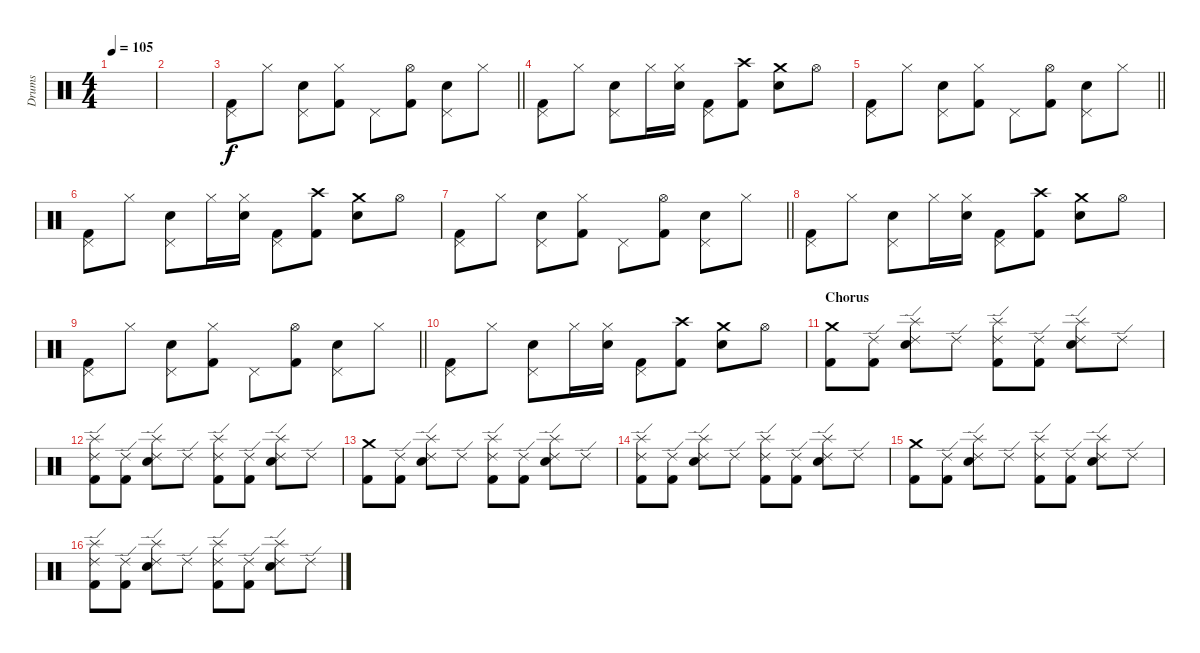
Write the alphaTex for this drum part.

\track ("Drums" "Drums") {instrument percussion}
\staff {score}
\articulation defaults
\ts (4 4)
\tempo 105
\clef neutral
\ks c
|
|
\barLineRight lightlight
("Pedal Hi-Hat (hit)" "Kick (hit) 2").8 "Hi-Hat (closed)".8 ("Pedal Hi-Hat (hit)" "Electric Snare (hit)").8 ("Hi-Hat (closed)" "Kick (hit) 2").8 "Pedal Hi-Hat (hit)".8 ("Hi-Hat (open)" "Kick (hit) 2").8 ("Pedal Hi-Hat (hit)" "Electric Snare (hit)").8 "Hi-Hat (closed)".8 |
("Pedal Hi-Hat (hit)" "Kick (hit) 2").8 "Hi-Hat (closed)".8 ("Pedal Hi-Hat (hit)" "Electric Snare (hit)").8 "Hi-Hat (closed)".16 ("Hi-Hat (closed)" "Electric Snare (hit)").16 ("Pedal Hi-Hat (hit)" "Kick (hit) 2").8 ("Crash high (hit)" "Kick (hit) 2").8 ("Crash medium (hit)" "Electric Snare (hit)").8 "Hi-Hat (open)".8 |
\barLineRight lightlight
("Pedal Hi-Hat (hit)" "Kick (hit) 2").8 "Hi-Hat (closed)".8 ("Pedal Hi-Hat (hit)" "Electric Snare (hit)").8 ("Hi-Hat (closed)" "Kick (hit) 2").8 "Pedal Hi-Hat (hit)".8 ("Hi-Hat (open)" "Kick (hit) 2").8 ("Pedal Hi-Hat (hit)" "Electric Snare (hit)").8 "Hi-Hat (closed)".8 |
("Pedal Hi-Hat (hit)" "Kick (hit) 2").8 "Hi-Hat (closed)".8 ("Pedal Hi-Hat (hit)" "Electric Snare (hit)").8 "Hi-Hat (closed)".16 ("Hi-Hat (closed)" "Electric Snare (hit)").16 ("Pedal Hi-Hat (hit)" "Kick (hit) 2").8 ("Crash high (hit)" "Kick (hit) 2").8 ("Crash medium (hit)" "Electric Snare (hit)").8 "Hi-Hat (open)".8 |
\barLineRight lightlight
("Pedal Hi-Hat (hit)" "Kick (hit) 2").8 "Hi-Hat (closed)".8 ("Pedal Hi-Hat (hit)" "Electric Snare (hit)").8 ("Hi-Hat (closed)" "Kick (hit) 2").8 "Pedal Hi-Hat (hit)".8 ("Hi-Hat (open)" "Kick (hit) 2").8 ("Pedal Hi-Hat (hit)" "Electric Snare (hit)").8 "Hi-Hat (closed)".8 |
("Pedal Hi-Hat (hit)" "Kick (hit) 2").8 "Hi-Hat (closed)".8 ("Pedal Hi-Hat (hit)" "Electric Snare (hit)").8 "Hi-Hat (closed)".16 ("Hi-Hat (closed)" "Electric Snare (hit)").16 ("Pedal Hi-Hat (hit)" "Kick (hit) 2").8 ("Crash high (hit)" "Kick (hit) 2").8 ("Crash medium (hit)" "Electric Snare (hit)").8 "Hi-Hat (open)".8 |
\barLineRight lightlight
("Pedal Hi-Hat (hit)" "Kick (hit) 2").8 "Hi-Hat (closed)".8 ("Pedal Hi-Hat (hit)" "Electric Snare (hit)").8 ("Hi-Hat (closed)" "Kick (hit) 2").8 "Pedal Hi-Hat (hit)".8 ("Hi-Hat (open)" "Kick (hit) 2").8 ("Pedal Hi-Hat (hit)" "Electric Snare (hit)").8 "Hi-Hat (closed)".8 |
("Pedal Hi-Hat (hit)" "Kick (hit) 2").8 "Hi-Hat (closed)".8 ("Pedal Hi-Hat (hit)" "Electric Snare (hit)").8 "Hi-Hat (closed)".16 ("Hi-Hat (closed)" "Electric Snare (hit)").16 ("Pedal Hi-Hat (hit)" "Kick (hit) 2").8 ("Crash high (hit)" "Kick (hit) 2").8 ("Crash medium (hit)" "Electric Snare (hit)").8 "Hi-Hat (open)".8 |
\section ("" "Chorus")
("Crash medium (hit)" "Kick (hit) 2").8 ("Ride (edge) 2" "Kick (hit) 2").8 ("Ride (edge) 2" "Splash (hit)" "Electric Snare (hit)").8 "Ride (edge) 2".8 ("Ride (edge) 2" "Splash (hit)" "Kick (hit) 2").8 ("Ride (edge) 2" "Kick (hit) 2").8 ("Ride (edge) 2" "Splash (hit)" "Electric Snare (hit)").8 "Ride (edge) 2".8 |
("Ride (edge) 2" "Splash (hit)" "Kick (hit) 2").8 ("Ride (edge) 2" "Kick (hit) 2").8 ("Ride (edge) 2" "Splash (hit)" "Electric Snare (hit)").8 "Ride (edge) 2".8 ("Ride (edge) 2" "Splash (hit)" "Kick (hit) 2").8 ("Ride (edge) 2" "Kick (hit) 2").8 ("Ride (edge) 2" "Splash (hit)" "Electric Snare (hit)").8 "Ride (edge) 2".8 |
("Crash medium (hit)" "Kick (hit) 2").8 ("Ride (edge) 2" "Kick (hit) 2").8 ("Ride (edge) 2" "Splash (hit)" "Electric Snare (hit)").8 "Ride (edge) 2".8 ("Ride (edge) 2" "Splash (hit)" "Kick (hit) 2").8 ("Ride (edge) 2" "Kick (hit) 2").8 ("Ride (edge) 2" "Splash (hit)" "Electric Snare (hit)").8 "Ride (edge) 2".8 |
("Ride (edge) 2" "Splash (hit)" "Kick (hit) 2").8 ("Ride (edge) 2" "Kick (hit) 2").8 ("Ride (edge) 2" "Splash (hit)" "Electric Snare (hit)").8 "Ride (edge) 2".8 ("Ride (edge) 2" "Splash (hit)" "Kick (hit) 2").8 ("Ride (edge) 2" "Kick (hit) 2").8 ("Ride (edge) 2" "Splash (hit)" "Electric Snare (hit)").8 "Ride (edge) 2".8 |
("Crash medium (hit)" "Kick (hit) 2").8 ("Ride (edge) 2" "Kick (hit) 2").8 ("Ride (edge) 2" "Splash (hit)" "Electric Snare (hit)").8 "Ride (edge) 2".8 ("Ride (edge) 2" "Splash (hit)" "Kick (hit) 2").8 ("Ride (edge) 2" "Kick (hit) 2").8 ("Ride (edge) 2" "Splash (hit)" "Electric Snare (hit)").8 "Ride (edge) 2".8 |
("Ride (edge) 2" "Splash (hit)" "Kick (hit) 2").8 ("Ride (edge) 2" "Kick (hit) 2").8 ("Ride (edge) 2" "Splash (hit)" "Electric Snare (hit)").8 "Ride (edge) 2".8 ("Ride (edge) 2" "Splash (hit)" "Kick (hit) 2").8 ("Ride (edge) 2" "Kick (hit) 2").8 ("Ride (edge) 2" "Splash (hit)" "Electric Snare (hit)").8 "Ride (edge) 2".8
